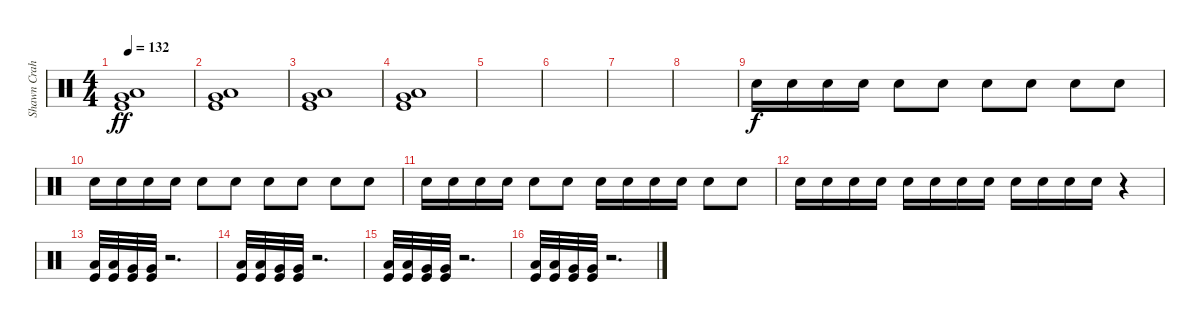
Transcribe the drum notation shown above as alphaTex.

\track ("Shawn Crahan" "Shawn Crah") {instrument percussion}
\staff {score}
\articulation defaults
\ts (4 4)
\tempo 132
\clef neutral
\ks c
("Kick (hit)" "Low Floor Tom (hit)" "Very Low Tom (hit)").1{dy ff} |
("Kick (hit)" "Low Floor Tom (hit)" "Very Low Tom (hit)").1 |
("Kick (hit)" "Low Floor Tom (hit)" "Very Low Tom (hit)").1 |
("Kick (hit)" "Low Floor Tom (hit)" "Very Low Tom (hit)").1 |
|
|
|
|
"Snare (hit) 2".16{dy f} "Snare (hit) 2".16 "Snare (hit) 2".16 "Snare (hit) 2".16 "Snare (hit) 2".8 "Snare (hit) 2".8 "Snare (hit) 2".8 "Snare (hit) 2".8 "Snare (hit) 2".8 "Snare (hit) 2".8 |
"Snare (hit) 2".16 "Snare (hit) 2".16 "Snare (hit) 2".16 "Snare (hit) 2".16 "Snare (hit) 2".8 "Snare (hit) 2".8 "Snare (hit) 2".8 "Snare (hit) 2".8 "Snare (hit) 2".8 "Snare (hit) 2".8 |
"Snare (hit) 2".16 "Snare (hit) 2".16 "Snare (hit) 2".16 "Snare (hit) 2".16 "Snare (hit) 2".8 "Snare (hit) 2".8 "Snare (hit) 2".16 "Snare (hit) 2".16 "Snare (hit) 2".16 "Snare (hit) 2".16 "Snare (hit) 2".8 "Snare (hit) 2".8 |
"Snare (hit) 2".16 "Snare (hit) 2".16 "Snare (hit) 2".16 "Snare (hit) 2".16 "Snare (hit) 2".16 "Snare (hit) 2".16 "Snare (hit) 2".16 "Snare (hit) 2".16 "Snare (hit) 2".16 "Snare (hit) 2".16 "Snare (hit) 2".16 "Snare (hit) 2".16 r.4 |
("Kick (hit)" "Low Tom (hit)").32 ("Kick (hit)" "Low Tom (hit)").32 ("Kick (hit)" "Very Low Tom (hit)").32 ("Kick (hit)" "Very Low Tom (hit)").32 r.2{d} |
("Kick (hit)" "Low Tom (hit)").32 ("Kick (hit)" "Low Tom (hit)").32 ("Kick (hit)" "Very Low Tom (hit)").32 ("Kick (hit)" "Very Low Tom (hit)").32 r.2{d} |
("Kick (hit)" "Low Tom (hit)").32 ("Kick (hit)" "Low Tom (hit)").32 ("Kick (hit)" "Very Low Tom (hit)").32 ("Kick (hit)" "Very Low Tom (hit)").32 r.2{d} |
("Kick (hit)" "Low Tom (hit)").32 ("Kick (hit)" "Low Tom (hit)").32 ("Kick (hit)" "Very Low Tom (hit)").32 ("Kick (hit)" "Very Low Tom (hit)").32 r.2{d}
